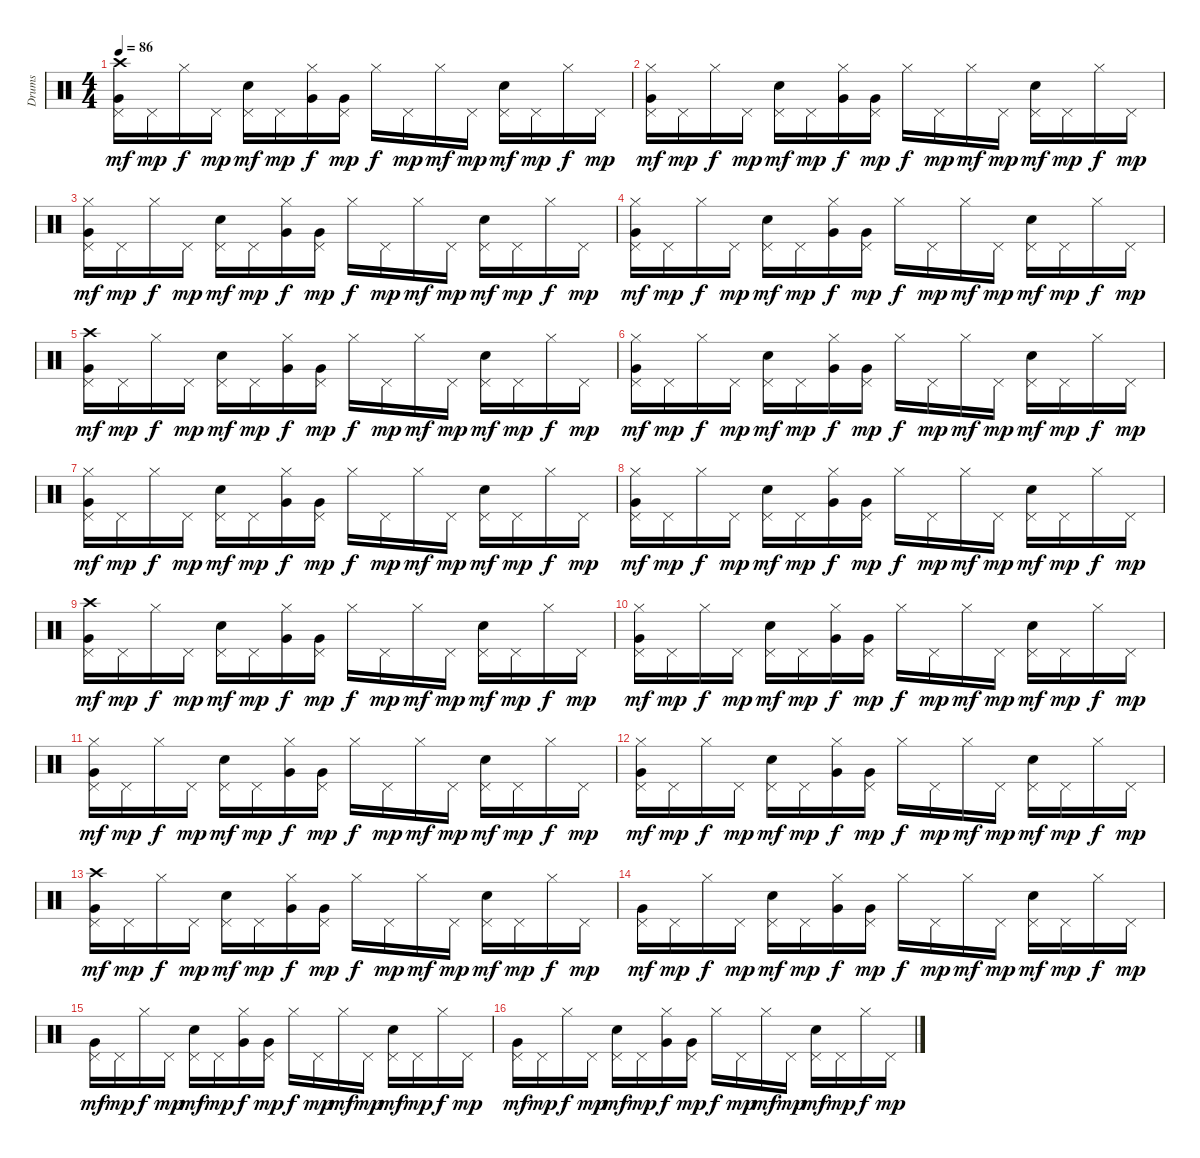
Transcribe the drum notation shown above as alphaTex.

\track ("Drums" "Drums") {instrument percussion}
\staff {score}
\articulation defaults
\ts (4 4)
\tempo 86
\clef neutral
\ks c
("Crash high (hit)" "Very Low Tom (hit)" "Pedal Hi-Hat (hit)").16{dy mf} "Pedal Hi-Hat (hit)".16{dy mp} "Hi-Hat (closed)".16{dy f} "Pedal Hi-Hat (hit)".16{dy mp} ("Electric Snare (hit)" "Pedal Hi-Hat (hit)").16{dy mf} "Pedal Hi-Hat (hit)".16{dy mp} ("Hi-Hat (closed)" "Very Low Tom (hit)").16{dy f} ("Very Low Tom (hit)" "Pedal Hi-Hat (hit)").16{dy mp} "Hi-Hat (closed)".16{dy f} "Pedal Hi-Hat (hit)".16{dy mp} "Hi-Hat (closed)".16{dy mf} "Pedal Hi-Hat (hit)".16{dy mp} ("Electric Snare (hit)" "Pedal Hi-Hat (hit)").16{dy mf} "Pedal Hi-Hat (hit)".16{dy mp} "Hi-Hat (closed)".16{dy f} "Pedal Hi-Hat (hit)".16{dy mp} |
("Hi-Hat (closed)" "Very Low Tom (hit)" "Pedal Hi-Hat (hit)").16{dy mf} "Pedal Hi-Hat (hit)".16{dy mp} "Hi-Hat (closed)".16{dy f} "Pedal Hi-Hat (hit)".16{dy mp} ("Electric Snare (hit)" "Pedal Hi-Hat (hit)").16{dy mf} "Pedal Hi-Hat (hit)".16{dy mp} ("Hi-Hat (closed)" "Very Low Tom (hit)").16{dy f} ("Very Low Tom (hit)" "Pedal Hi-Hat (hit)").16{dy mp} "Hi-Hat (closed)".16{dy f} "Pedal Hi-Hat (hit)".16{dy mp} "Hi-Hat (closed)".16{dy mf} "Pedal Hi-Hat (hit)".16{dy mp} ("Electric Snare (hit)" "Pedal Hi-Hat (hit)").16{dy mf} "Pedal Hi-Hat (hit)".16{dy mp} "Hi-Hat (closed)".16{dy f} "Pedal Hi-Hat (hit)".16{dy mp} |
("Hi-Hat (closed)" "Very Low Tom (hit)" "Pedal Hi-Hat (hit)").16{dy mf} "Pedal Hi-Hat (hit)".16{dy mp} "Hi-Hat (closed)".16{dy f} "Pedal Hi-Hat (hit)".16{dy mp} ("Electric Snare (hit)" "Pedal Hi-Hat (hit)").16{dy mf} "Pedal Hi-Hat (hit)".16{dy mp} ("Hi-Hat (closed)" "Very Low Tom (hit)").16{dy f} ("Very Low Tom (hit)" "Pedal Hi-Hat (hit)").16{dy mp} "Hi-Hat (closed)".16{dy f} "Pedal Hi-Hat (hit)".16{dy mp} "Hi-Hat (closed)".16{dy mf} "Pedal Hi-Hat (hit)".16{dy mp} ("Electric Snare (hit)" "Pedal Hi-Hat (hit)").16{dy mf} "Pedal Hi-Hat (hit)".16{dy mp} "Hi-Hat (closed)".16{dy f} "Pedal Hi-Hat (hit)".16{dy mp} |
("Hi-Hat (closed)" "Very Low Tom (hit)" "Pedal Hi-Hat (hit)").16{dy mf} "Pedal Hi-Hat (hit)".16{dy mp} "Hi-Hat (closed)".16{dy f} "Pedal Hi-Hat (hit)".16{dy mp} ("Electric Snare (hit)" "Pedal Hi-Hat (hit)").16{dy mf} "Pedal Hi-Hat (hit)".16{dy mp} ("Hi-Hat (closed)" "Very Low Tom (hit)").16{dy f} ("Very Low Tom (hit)" "Pedal Hi-Hat (hit)").16{dy mp} "Hi-Hat (closed)".16{dy f} "Pedal Hi-Hat (hit)".16{dy mp} "Hi-Hat (closed)".16{dy mf} "Pedal Hi-Hat (hit)".16{dy mp} ("Electric Snare (hit)" "Pedal Hi-Hat (hit)").16{dy mf} "Pedal Hi-Hat (hit)".16{dy mp} "Hi-Hat (closed)".16{dy f} "Pedal Hi-Hat (hit)".16{dy mp} |
("Crash high (hit)" "Very Low Tom (hit)" "Pedal Hi-Hat (hit)").16{dy mf} "Pedal Hi-Hat (hit)".16{dy mp} "Hi-Hat (closed)".16{dy f} "Pedal Hi-Hat (hit)".16{dy mp} ("Electric Snare (hit)" "Pedal Hi-Hat (hit)").16{dy mf} "Pedal Hi-Hat (hit)".16{dy mp} ("Hi-Hat (closed)" "Very Low Tom (hit)").16{dy f} ("Very Low Tom (hit)" "Pedal Hi-Hat (hit)").16{dy mp} "Hi-Hat (closed)".16{dy f} "Pedal Hi-Hat (hit)".16{dy mp} "Hi-Hat (closed)".16{dy mf} "Pedal Hi-Hat (hit)".16{dy mp} ("Electric Snare (hit)" "Pedal Hi-Hat (hit)").16{dy mf} "Pedal Hi-Hat (hit)".16{dy mp} "Hi-Hat (closed)".16{dy f} "Pedal Hi-Hat (hit)".16{dy mp} |
("Hi-Hat (closed)" "Very Low Tom (hit)" "Pedal Hi-Hat (hit)").16{dy mf} "Pedal Hi-Hat (hit)".16{dy mp} "Hi-Hat (closed)".16{dy f} "Pedal Hi-Hat (hit)".16{dy mp} ("Electric Snare (hit)" "Pedal Hi-Hat (hit)").16{dy mf} "Pedal Hi-Hat (hit)".16{dy mp} ("Hi-Hat (closed)" "Very Low Tom (hit)").16{dy f} ("Very Low Tom (hit)" "Pedal Hi-Hat (hit)").16{dy mp} "Hi-Hat (closed)".16{dy f} "Pedal Hi-Hat (hit)".16{dy mp} "Hi-Hat (closed)".16{dy mf} "Pedal Hi-Hat (hit)".16{dy mp} ("Electric Snare (hit)" "Pedal Hi-Hat (hit)").16{dy mf} "Pedal Hi-Hat (hit)".16{dy mp} "Hi-Hat (closed)".16{dy f} "Pedal Hi-Hat (hit)".16{dy mp} |
("Hi-Hat (closed)" "Very Low Tom (hit)" "Pedal Hi-Hat (hit)").16{dy mf} "Pedal Hi-Hat (hit)".16{dy mp} "Hi-Hat (closed)".16{dy f} "Pedal Hi-Hat (hit)".16{dy mp} ("Electric Snare (hit)" "Pedal Hi-Hat (hit)").16{dy mf} "Pedal Hi-Hat (hit)".16{dy mp} ("Hi-Hat (closed)" "Very Low Tom (hit)").16{dy f} ("Very Low Tom (hit)" "Pedal Hi-Hat (hit)").16{dy mp} "Hi-Hat (closed)".16{dy f} "Pedal Hi-Hat (hit)".16{dy mp} "Hi-Hat (closed)".16{dy mf} "Pedal Hi-Hat (hit)".16{dy mp} ("Electric Snare (hit)" "Pedal Hi-Hat (hit)").16{dy mf} "Pedal Hi-Hat (hit)".16{dy mp} "Hi-Hat (closed)".16{dy f} "Pedal Hi-Hat (hit)".16{dy mp} |
("Hi-Hat (closed)" "Very Low Tom (hit)" "Pedal Hi-Hat (hit)").16{dy mf} "Pedal Hi-Hat (hit)".16{dy mp} "Hi-Hat (closed)".16{dy f} "Pedal Hi-Hat (hit)".16{dy mp} ("Electric Snare (hit)" "Pedal Hi-Hat (hit)").16{dy mf} "Pedal Hi-Hat (hit)".16{dy mp} ("Hi-Hat (closed)" "Very Low Tom (hit)").16{dy f} ("Very Low Tom (hit)" "Pedal Hi-Hat (hit)").16{dy mp} "Hi-Hat (closed)".16{dy f} "Pedal Hi-Hat (hit)".16{dy mp} "Hi-Hat (closed)".16{dy mf} "Pedal Hi-Hat (hit)".16{dy mp} ("Electric Snare (hit)" "Pedal Hi-Hat (hit)").16{dy mf} "Pedal Hi-Hat (hit)".16{dy mp} "Hi-Hat (closed)".16{dy f} "Pedal Hi-Hat (hit)".16{dy mp} |
("Crash high (hit)" "Very Low Tom (hit)" "Pedal Hi-Hat (hit)").16{dy mf} "Pedal Hi-Hat (hit)".16{dy mp} "Hi-Hat (closed)".16{dy f} "Pedal Hi-Hat (hit)".16{dy mp} ("Electric Snare (hit)" "Pedal Hi-Hat (hit)").16{dy mf} "Pedal Hi-Hat (hit)".16{dy mp} ("Hi-Hat (closed)" "Very Low Tom (hit)").16{dy f} ("Very Low Tom (hit)" "Pedal Hi-Hat (hit)").16{dy mp} "Hi-Hat (closed)".16{dy f} "Pedal Hi-Hat (hit)".16{dy mp} "Hi-Hat (closed)".16{dy mf} "Pedal Hi-Hat (hit)".16{dy mp} ("Electric Snare (hit)" "Pedal Hi-Hat (hit)").16{dy mf} "Pedal Hi-Hat (hit)".16{dy mp} "Hi-Hat (closed)".16{dy f} "Pedal Hi-Hat (hit)".16{dy mp} |
("Hi-Hat (closed)" "Very Low Tom (hit)" "Pedal Hi-Hat (hit)").16{dy mf} "Pedal Hi-Hat (hit)".16{dy mp} "Hi-Hat (closed)".16{dy f} "Pedal Hi-Hat (hit)".16{dy mp} ("Electric Snare (hit)" "Pedal Hi-Hat (hit)").16{dy mf} "Pedal Hi-Hat (hit)".16{dy mp} ("Hi-Hat (closed)" "Very Low Tom (hit)").16{dy f} ("Very Low Tom (hit)" "Pedal Hi-Hat (hit)").16{dy mp} "Hi-Hat (closed)".16{dy f} "Pedal Hi-Hat (hit)".16{dy mp} "Hi-Hat (closed)".16{dy mf} "Pedal Hi-Hat (hit)".16{dy mp} ("Electric Snare (hit)" "Pedal Hi-Hat (hit)").16{dy mf} "Pedal Hi-Hat (hit)".16{dy mp} "Hi-Hat (closed)".16{dy f} "Pedal Hi-Hat (hit)".16{dy mp} |
("Hi-Hat (closed)" "Very Low Tom (hit)" "Pedal Hi-Hat (hit)").16{dy mf} "Pedal Hi-Hat (hit)".16{dy mp} "Hi-Hat (closed)".16{dy f} "Pedal Hi-Hat (hit)".16{dy mp} ("Electric Snare (hit)" "Pedal Hi-Hat (hit)").16{dy mf} "Pedal Hi-Hat (hit)".16{dy mp} ("Hi-Hat (closed)" "Very Low Tom (hit)").16{dy f} ("Very Low Tom (hit)" "Pedal Hi-Hat (hit)").16{dy mp} "Hi-Hat (closed)".16{dy f} "Pedal Hi-Hat (hit)".16{dy mp} "Hi-Hat (closed)".16{dy mf} "Pedal Hi-Hat (hit)".16{dy mp} ("Electric Snare (hit)" "Pedal Hi-Hat (hit)").16{dy mf} "Pedal Hi-Hat (hit)".16{dy mp} "Hi-Hat (closed)".16{dy f} "Pedal Hi-Hat (hit)".16{dy mp} |
("Hi-Hat (closed)" "Very Low Tom (hit)" "Pedal Hi-Hat (hit)").16{dy mf} "Pedal Hi-Hat (hit)".16{dy mp} "Hi-Hat (closed)".16{dy f} "Pedal Hi-Hat (hit)".16{dy mp} ("Electric Snare (hit)" "Pedal Hi-Hat (hit)").16{dy mf} "Pedal Hi-Hat (hit)".16{dy mp} ("Hi-Hat (closed)" "Very Low Tom (hit)").16{dy f} ("Very Low Tom (hit)" "Pedal Hi-Hat (hit)").16{dy mp} "Hi-Hat (closed)".16{dy f} "Pedal Hi-Hat (hit)".16{dy mp} "Hi-Hat (closed)".16{dy mf} "Pedal Hi-Hat (hit)".16{dy mp} ("Electric Snare (hit)" "Pedal Hi-Hat (hit)").16{dy mf} "Pedal Hi-Hat (hit)".16{dy mp} "Hi-Hat (closed)".16{dy f} "Pedal Hi-Hat (hit)".16{dy mp} |
("Crash high (hit)" "Very Low Tom (hit)" "Pedal Hi-Hat (hit)").16{dy mf} "Pedal Hi-Hat (hit)".16{dy mp} "Hi-Hat (closed)".16{dy f} "Pedal Hi-Hat (hit)".16{dy mp} ("Electric Snare (hit)" "Pedal Hi-Hat (hit)").16{dy mf} "Pedal Hi-Hat (hit)".16{dy mp} ("Hi-Hat (closed)" "Very Low Tom (hit)").16{dy f} ("Very Low Tom (hit)" "Pedal Hi-Hat (hit)").16{dy mp} "Hi-Hat (closed)".16{dy f} "Pedal Hi-Hat (hit)".16{dy mp} "Hi-Hat (closed)".16{dy mf} "Pedal Hi-Hat (hit)".16{dy mp} ("Electric Snare (hit)" "Pedal Hi-Hat (hit)").16{dy mf} "Pedal Hi-Hat (hit)".16{dy mp} "Hi-Hat (closed)".16{dy f} "Pedal Hi-Hat (hit)".16{dy mp} |
("Very Low Tom (hit)" "Pedal Hi-Hat (hit)").16{dy mf} "Pedal Hi-Hat (hit)".16{dy mp} "Hi-Hat (closed)".16{dy f} "Pedal Hi-Hat (hit)".16{dy mp} ("Electric Snare (hit)" "Pedal Hi-Hat (hit)").16{dy mf} "Pedal Hi-Hat (hit)".16{dy mp} ("Hi-Hat (closed)" "Very Low Tom (hit)").16{dy f} ("Very Low Tom (hit)" "Pedal Hi-Hat (hit)").16{dy mp} "Hi-Hat (closed)".16{dy f} "Pedal Hi-Hat (hit)".16{dy mp} "Hi-Hat (closed)".16{dy mf} "Pedal Hi-Hat (hit)".16{dy mp} ("Electric Snare (hit)" "Pedal Hi-Hat (hit)").16{dy mf} "Pedal Hi-Hat (hit)".16{dy mp} "Hi-Hat (closed)".16{dy f} "Pedal Hi-Hat (hit)".16{dy mp} |
("Very Low Tom (hit)" "Pedal Hi-Hat (hit)").16{dy mf} "Pedal Hi-Hat (hit)".16{dy mp} "Hi-Hat (closed)".16{dy f} "Pedal Hi-Hat (hit)".16{dy mp} ("Electric Snare (hit)" "Pedal Hi-Hat (hit)").16{dy mf} "Pedal Hi-Hat (hit)".16{dy mp} ("Hi-Hat (closed)" "Very Low Tom (hit)").16{dy f} ("Very Low Tom (hit)" "Pedal Hi-Hat (hit)").16{dy mp} "Hi-Hat (closed)".16{dy f} "Pedal Hi-Hat (hit)".16{dy mp} "Hi-Hat (closed)".16{dy mf} "Pedal Hi-Hat (hit)".16{dy mp} ("Electric Snare (hit)" "Pedal Hi-Hat (hit)").16{dy mf} "Pedal Hi-Hat (hit)".16{dy mp} "Hi-Hat (closed)".16{dy f} "Pedal Hi-Hat (hit)".16{dy mp} |
("Very Low Tom (hit)" "Pedal Hi-Hat (hit)").16{dy mf} "Pedal Hi-Hat (hit)".16{dy mp} "Hi-Hat (closed)".16{dy f} "Pedal Hi-Hat (hit)".16{dy mp} ("Electric Snare (hit)" "Pedal Hi-Hat (hit)").16{dy mf} "Pedal Hi-Hat (hit)".16{dy mp} ("Hi-Hat (closed)" "Very Low Tom (hit)").16{dy f} ("Very Low Tom (hit)" "Pedal Hi-Hat (hit)").16{dy mp} "Hi-Hat (closed)".16{dy f} "Pedal Hi-Hat (hit)".16{dy mp} "Hi-Hat (closed)".16{dy mf} "Pedal Hi-Hat (hit)".16{dy mp} ("Electric Snare (hit)" "Pedal Hi-Hat (hit)").16{dy mf} "Pedal Hi-Hat (hit)".16{dy mp} "Hi-Hat (closed)".16{dy f} "Pedal Hi-Hat (hit)".16{dy mp}
